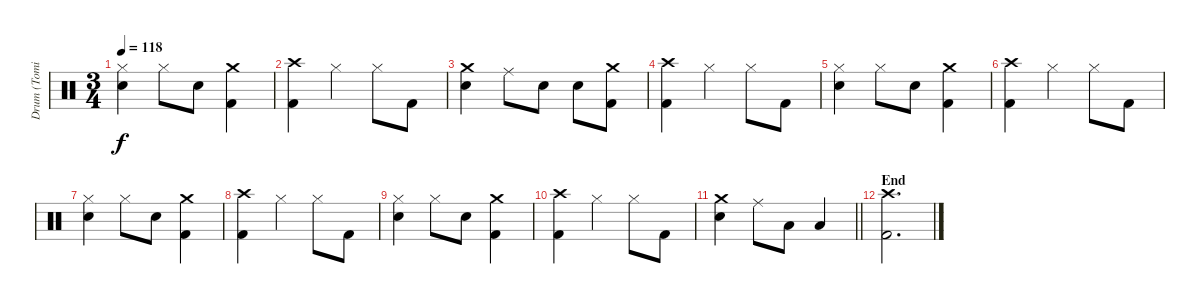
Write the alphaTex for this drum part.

\track ("Drum (Tomi)" "Drum (Tomi") {instrument percussion}
\staff {score}
\articulation defaults
\ts (3 4)
\tempo 118
\clef neutral
\ks c
("Hi-Hat (closed)" "Electric Snare (hit)").4{dy f} "Hi-Hat (closed)".8 "Electric Snare (hit)".8 ("Crash medium (hit)" "Kick (hit) 2").4 |
("Crash high (hit)" "Kick (hit) 2").4 "Hi-Hat (closed)".4 "Hi-Hat (closed)".8 "Kick (hit) 2".8 |
("Crash medium (hit)" "Electric Snare (hit)").4 "Ride (middle)".8 "Electric Snare (hit)".8 "Electric Snare (hit)".8 ("Crash medium (hit)" "Kick (hit) 2").8 |
("Crash high (hit)" "Kick (hit) 2").4 "Hi-Hat (closed)".4 "Hi-Hat (closed)".8 "Kick (hit) 2".8 |
("Hi-Hat (closed)" "Electric Snare (hit)").4 "Hi-Hat (closed)".8 "Electric Snare (hit)".8 ("Crash medium (hit)" "Kick (hit) 2").4 |
("Crash high (hit)" "Kick (hit) 2").4 "Hi-Hat (closed)".4 "Hi-Hat (closed)".8 "Kick (hit) 2".8 |
("Hi-Hat (closed)" "Electric Snare (hit)").4 "Hi-Hat (closed)".8 "Electric Snare (hit)".8 ("Crash medium (hit)" "Kick (hit) 2").4 |
("Crash high (hit)" "Kick (hit) 2").4 "Hi-Hat (closed)".4 "Hi-Hat (closed)".8 "Kick (hit) 2".8 |
("Hi-Hat (closed)" "Electric Snare (hit)").4 "Hi-Hat (closed)".8 "Electric Snare (hit)".8 ("Crash medium (hit)" "Kick (hit) 2").4 |
("Crash high (hit)" "Kick (hit) 2").4 "Hi-Hat (closed)".4 "Hi-Hat (closed)".8 "Kick (hit) 2".8 |
\barLineRight lightlight
("Crash medium (hit)" "Electric Snare (hit)").4 "Ride (middle)".8 "Low Tom (hit)".8 "Low Tom (hit)".4 |
\section ("" "End")
("Crash high (hit)" "Kick (hit) 2").2{d}
